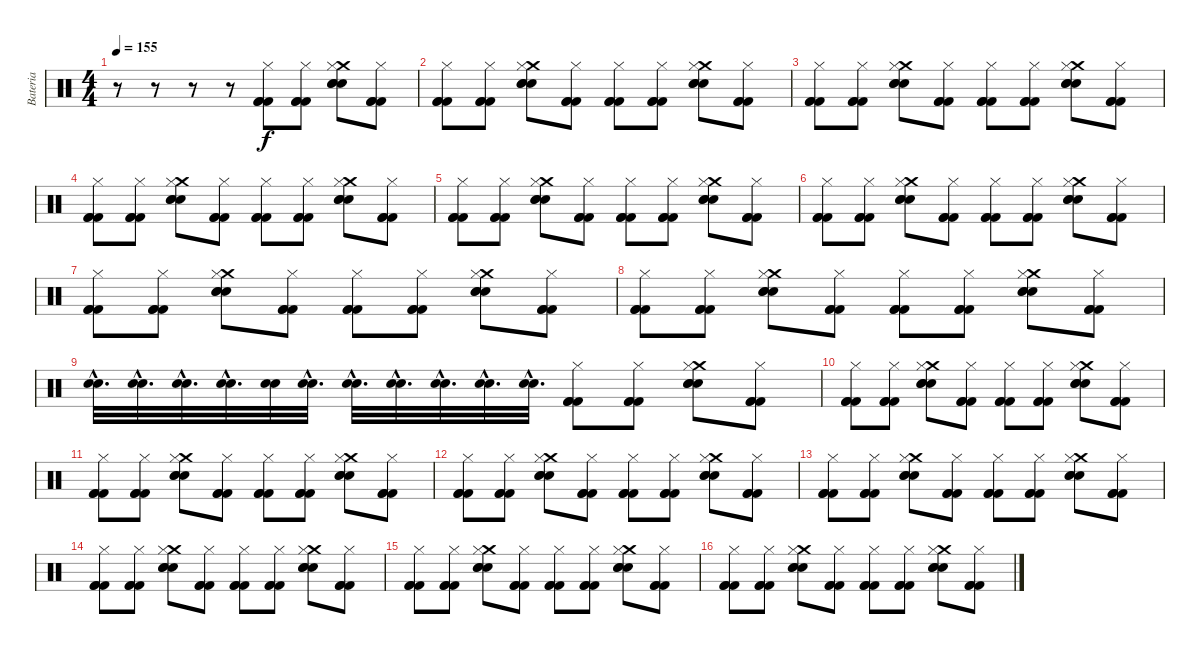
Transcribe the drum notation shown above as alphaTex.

\track ("Bateria" "Bateria") {instrument percussion}
\staff {score}
\articulation defaults
\ts (4 4)
\tempo 155
\clef neutral
\ks c
r.8{dy f} r.8 r.8 r.8 ("Kick (hit) 2" "Kick (hit) 2" "Kick (hit) 2" "Hi-Hat (closed)").8 ("Kick (hit) 2" "Kick (hit) 2" "Kick (hit) 2" "Hi-Hat (closed)").8 ("Snare (hit) 2" "Snare (hit) 2" "Snare (hit) 2" "Crash medium (hit)" "Hi-Hat (closed)").8 ("Kick (hit) 2" "Kick (hit) 2" "Kick (hit) 2" "Hi-Hat (closed)").8 |
("Kick (hit) 2" "Kick (hit) 2" "Kick (hit) 2" "Hi-Hat (closed)").8 ("Kick (hit) 2" "Kick (hit) 2" "Kick (hit) 2" "Hi-Hat (closed)").8 ("Snare (hit) 2" "Snare (hit) 2" "Snare (hit) 2" "Crash medium (hit)" "Hi-Hat (closed)").8 ("Kick (hit) 2" "Kick (hit) 2" "Kick (hit) 2" "Hi-Hat (closed)").8 ("Kick (hit) 2" "Kick (hit) 2" "Kick (hit) 2" "Hi-Hat (closed)").8 ("Kick (hit) 2" "Kick (hit) 2" "Kick (hit) 2" "Hi-Hat (closed)").8 ("Snare (hit) 2" "Snare (hit) 2" "Snare (hit) 2" "Crash medium (hit)" "Hi-Hat (closed)").8 ("Kick (hit) 2" "Kick (hit) 2" "Kick (hit) 2" "Hi-Hat (closed)").8 |
("Kick (hit) 2" "Kick (hit) 2" "Kick (hit) 2" "Hi-Hat (closed)").8 ("Kick (hit) 2" "Kick (hit) 2" "Kick (hit) 2" "Hi-Hat (closed)").8 ("Snare (hit) 2" "Snare (hit) 2" "Snare (hit) 2" "Crash medium (hit)" "Hi-Hat (closed)").8 ("Kick (hit) 2" "Kick (hit) 2" "Kick (hit) 2" "Hi-Hat (closed)").8 ("Kick (hit) 2" "Kick (hit) 2" "Kick (hit) 2" "Hi-Hat (closed)").8 ("Kick (hit) 2" "Kick (hit) 2" "Kick (hit) 2" "Hi-Hat (closed)").8 ("Snare (hit) 2" "Snare (hit) 2" "Snare (hit) 2" "Crash medium (hit)" "Hi-Hat (closed)").8 ("Kick (hit) 2" "Kick (hit) 2" "Kick (hit) 2" "Hi-Hat (closed)").8 |
("Kick (hit) 2" "Kick (hit) 2" "Kick (hit) 2" "Hi-Hat (closed)").8 ("Kick (hit) 2" "Kick (hit) 2" "Kick (hit) 2" "Hi-Hat (closed)").8 ("Snare (hit) 2" "Snare (hit) 2" "Snare (hit) 2" "Crash medium (hit)" "Hi-Hat (closed)").8 ("Kick (hit) 2" "Kick (hit) 2" "Kick (hit) 2" "Hi-Hat (closed)").8 ("Kick (hit) 2" "Kick (hit) 2" "Kick (hit) 2" "Hi-Hat (closed)").8 ("Kick (hit) 2" "Kick (hit) 2" "Kick (hit) 2" "Hi-Hat (closed)").8 ("Snare (hit) 2" "Snare (hit) 2" "Snare (hit) 2" "Crash medium (hit)" "Hi-Hat (closed)").8 ("Kick (hit) 2" "Kick (hit) 2" "Kick (hit) 2" "Hi-Hat (closed)").8 |
("Kick (hit) 2" "Kick (hit) 2" "Kick (hit) 2" "Hi-Hat (closed)").8 ("Kick (hit) 2" "Kick (hit) 2" "Kick (hit) 2" "Hi-Hat (closed)").8 ("Snare (hit) 2" "Snare (hit) 2" "Snare (hit) 2" "Crash medium (hit)" "Hi-Hat (closed)").8 ("Kick (hit) 2" "Kick (hit) 2" "Kick (hit) 2" "Hi-Hat (closed)").8 ("Kick (hit) 2" "Kick (hit) 2" "Kick (hit) 2" "Hi-Hat (closed)").8 ("Kick (hit) 2" "Kick (hit) 2" "Kick (hit) 2" "Hi-Hat (closed)").8 ("Snare (hit) 2" "Snare (hit) 2" "Snare (hit) 2" "Crash medium (hit)" "Hi-Hat (closed)").8 ("Kick (hit) 2" "Kick (hit) 2" "Kick (hit) 2" "Hi-Hat (closed)").8 |
("Kick (hit) 2" "Kick (hit) 2" "Kick (hit) 2" "Hi-Hat (closed)").8 ("Kick (hit) 2" "Kick (hit) 2" "Kick (hit) 2" "Hi-Hat (closed)").8 ("Snare (hit) 2" "Snare (hit) 2" "Snare (hit) 2" "Crash medium (hit)" "Hi-Hat (closed)").8 ("Kick (hit) 2" "Kick (hit) 2" "Kick (hit) 2" "Hi-Hat (closed)").8 ("Kick (hit) 2" "Kick (hit) 2" "Kick (hit) 2" "Hi-Hat (closed)").8 ("Kick (hit) 2" "Kick (hit) 2" "Kick (hit) 2" "Hi-Hat (closed)").8 ("Snare (hit) 2" "Snare (hit) 2" "Snare (hit) 2" "Crash medium (hit)" "Hi-Hat (closed)").8 ("Kick (hit) 2" "Kick (hit) 2" "Kick (hit) 2" "Hi-Hat (closed)").8 |
("Kick (hit) 2" "Kick (hit) 2" "Kick (hit) 2" "Hi-Hat (closed)").8 ("Kick (hit) 2" "Kick (hit) 2" "Kick (hit) 2" "Hi-Hat (closed)").8 ("Snare (hit) 2" "Snare (hit) 2" "Snare (hit) 2" "Crash medium (hit)" "Hi-Hat (closed)").8 ("Kick (hit) 2" "Kick (hit) 2" "Kick (hit) 2" "Hi-Hat (closed)").8 ("Kick (hit) 2" "Kick (hit) 2" "Kick (hit) 2" "Hi-Hat (closed)").8 ("Kick (hit) 2" "Kick (hit) 2" "Kick (hit) 2" "Hi-Hat (closed)").8 ("Snare (hit) 2" "Snare (hit) 2" "Snare (hit) 2" "Crash medium (hit)" "Hi-Hat (closed)").8 ("Kick (hit) 2" "Kick (hit) 2" "Kick (hit) 2" "Hi-Hat (closed)").8 |
("Kick (hit) 2" "Kick (hit) 2" "Kick (hit) 2" "Hi-Hat (closed)").8 ("Kick (hit) 2" "Kick (hit) 2" "Kick (hit) 2" "Hi-Hat (closed)").8 ("Snare (hit) 2" "Snare (hit) 2" "Snare (hit) 2" "Crash medium (hit)" "Hi-Hat (closed)").8 ("Kick (hit) 2" "Kick (hit) 2" "Kick (hit) 2" "Hi-Hat (closed)").8 ("Kick (hit) 2" "Kick (hit) 2" "Kick (hit) 2" "Hi-Hat (closed)").8 ("Kick (hit) 2" "Kick (hit) 2" "Kick (hit) 2" "Hi-Hat (closed)").8 ("Snare (hit) 2" "Snare (hit) 2" "Snare (hit) 2" "Crash medium (hit)" "Hi-Hat (closed)").8 ("Kick (hit) 2" "Kick (hit) 2" "Kick (hit) 2" "Hi-Hat (closed)").8 |
("Snare (hit) 2"{hac} "Snare (hit) 2"{hac}).32{d} ("Snare (hit) 2"{hac} "Snare (hit) 2"{hac}).32{d} ("Snare (hit) 2"{hac} "Snare (hit) 2"{hac}).32{d} ("Snare (hit) 2"{hac} "Snare (hit) 2"{hac}).32{d} ("Snare (hit) 2" "Snare (hit) 2").32 ("Snare (hit) 2"{hac} "Snare (hit) 2"{hac}).32{d} ("Snare (hit) 2"{hac} "Snare (hit) 2"{hac}).32{d} ("Snare (hit) 2"{hac} "Snare (hit) 2"{hac}).32{d} ("Snare (hit) 2"{hac} "Snare (hit) 2"{hac}).32{d} ("Snare (hit) 2"{hac} "Snare (hit) 2"{hac}).32{d} ("Snare (hit) 2"{hac} "Snare (hit) 2"{hac}).32{d} ("Kick (hit) 2" "Kick (hit) 2" "Kick (hit) 2" "Hi-Hat (closed)").8 ("Kick (hit) 2" "Kick (hit) 2" "Kick (hit) 2" "Hi-Hat (closed)").8 ("Snare (hit) 2" "Snare (hit) 2" "Snare (hit) 2" "Crash medium (hit)" "Hi-Hat (closed)").8 ("Kick (hit) 2" "Kick (hit) 2" "Kick (hit) 2" "Hi-Hat (closed)").8 |
("Kick (hit) 2" "Kick (hit) 2" "Kick (hit) 2" "Hi-Hat (closed)").8 ("Kick (hit) 2" "Kick (hit) 2" "Kick (hit) 2" "Hi-Hat (closed)").8 ("Snare (hit) 2" "Snare (hit) 2" "Snare (hit) 2" "Crash medium (hit)" "Hi-Hat (closed)").8 ("Kick (hit) 2" "Kick (hit) 2" "Kick (hit) 2" "Hi-Hat (closed)").8 ("Kick (hit) 2" "Kick (hit) 2" "Kick (hit) 2" "Hi-Hat (closed)").8 ("Kick (hit) 2" "Kick (hit) 2" "Kick (hit) 2" "Hi-Hat (closed)").8 ("Snare (hit) 2" "Snare (hit) 2" "Snare (hit) 2" "Crash medium (hit)" "Hi-Hat (closed)").8 ("Kick (hit) 2" "Kick (hit) 2" "Kick (hit) 2" "Hi-Hat (closed)").8 |
("Kick (hit) 2" "Kick (hit) 2" "Kick (hit) 2" "Hi-Hat (closed)").8 ("Kick (hit) 2" "Kick (hit) 2" "Kick (hit) 2" "Hi-Hat (closed)").8 ("Snare (hit) 2" "Snare (hit) 2" "Snare (hit) 2" "Crash medium (hit)" "Hi-Hat (closed)").8 ("Kick (hit) 2" "Kick (hit) 2" "Kick (hit) 2" "Hi-Hat (closed)").8 ("Kick (hit) 2" "Kick (hit) 2" "Kick (hit) 2" "Hi-Hat (closed)").8 ("Kick (hit) 2" "Kick (hit) 2" "Kick (hit) 2" "Hi-Hat (closed)").8 ("Snare (hit) 2" "Snare (hit) 2" "Snare (hit) 2" "Crash medium (hit)" "Hi-Hat (closed)").8 ("Kick (hit) 2" "Kick (hit) 2" "Kick (hit) 2" "Hi-Hat (closed)").8 |
("Kick (hit) 2" "Kick (hit) 2" "Kick (hit) 2" "Hi-Hat (closed)").8 ("Kick (hit) 2" "Kick (hit) 2" "Kick (hit) 2" "Hi-Hat (closed)").8 ("Snare (hit) 2" "Snare (hit) 2" "Snare (hit) 2" "Crash medium (hit)" "Hi-Hat (closed)").8 ("Kick (hit) 2" "Kick (hit) 2" "Kick (hit) 2" "Hi-Hat (closed)").8 ("Kick (hit) 2" "Kick (hit) 2" "Kick (hit) 2" "Hi-Hat (closed)").8 ("Kick (hit) 2" "Kick (hit) 2" "Kick (hit) 2" "Hi-Hat (closed)").8 ("Snare (hit) 2" "Snare (hit) 2" "Snare (hit) 2" "Crash medium (hit)" "Hi-Hat (closed)").8 ("Kick (hit) 2" "Kick (hit) 2" "Kick (hit) 2" "Hi-Hat (closed)").8 |
("Kick (hit) 2" "Kick (hit) 2" "Kick (hit) 2" "Hi-Hat (closed)").8 ("Kick (hit) 2" "Kick (hit) 2" "Kick (hit) 2" "Hi-Hat (closed)").8 ("Snare (hit) 2" "Snare (hit) 2" "Snare (hit) 2" "Crash medium (hit)" "Hi-Hat (closed)").8 ("Kick (hit) 2" "Kick (hit) 2" "Kick (hit) 2" "Hi-Hat (closed)").8 ("Kick (hit) 2" "Kick (hit) 2" "Kick (hit) 2" "Hi-Hat (closed)").8 ("Kick (hit) 2" "Kick (hit) 2" "Kick (hit) 2" "Hi-Hat (closed)").8 ("Snare (hit) 2" "Snare (hit) 2" "Snare (hit) 2" "Crash medium (hit)" "Hi-Hat (closed)").8 ("Kick (hit) 2" "Kick (hit) 2" "Kick (hit) 2" "Hi-Hat (closed)").8 |
("Kick (hit) 2" "Kick (hit) 2" "Kick (hit) 2" "Hi-Hat (closed)").8 ("Kick (hit) 2" "Kick (hit) 2" "Kick (hit) 2" "Hi-Hat (closed)").8 ("Snare (hit) 2" "Snare (hit) 2" "Snare (hit) 2" "Crash medium (hit)" "Hi-Hat (closed)").8 ("Kick (hit) 2" "Kick (hit) 2" "Kick (hit) 2" "Hi-Hat (closed)").8 ("Kick (hit) 2" "Kick (hit) 2" "Kick (hit) 2" "Hi-Hat (closed)").8 ("Kick (hit) 2" "Kick (hit) 2" "Kick (hit) 2" "Hi-Hat (closed)").8 ("Snare (hit) 2" "Snare (hit) 2" "Snare (hit) 2" "Crash medium (hit)" "Hi-Hat (closed)").8 ("Kick (hit) 2" "Kick (hit) 2" "Kick (hit) 2" "Hi-Hat (closed)").8 |
("Kick (hit) 2" "Kick (hit) 2" "Kick (hit) 2" "Hi-Hat (closed)").8 ("Kick (hit) 2" "Kick (hit) 2" "Kick (hit) 2" "Hi-Hat (closed)").8 ("Snare (hit) 2" "Snare (hit) 2" "Snare (hit) 2" "Crash medium (hit)" "Hi-Hat (closed)").8 ("Kick (hit) 2" "Kick (hit) 2" "Kick (hit) 2" "Hi-Hat (closed)").8 ("Kick (hit) 2" "Kick (hit) 2" "Kick (hit) 2" "Hi-Hat (closed)").8 ("Kick (hit) 2" "Kick (hit) 2" "Kick (hit) 2" "Hi-Hat (closed)").8 ("Snare (hit) 2" "Snare (hit) 2" "Snare (hit) 2" "Crash medium (hit)" "Hi-Hat (closed)").8 ("Kick (hit) 2" "Kick (hit) 2" "Kick (hit) 2" "Hi-Hat (closed)").8 |
("Kick (hit) 2" "Kick (hit) 2" "Kick (hit) 2" "Hi-Hat (closed)").8 ("Kick (hit) 2" "Kick (hit) 2" "Kick (hit) 2" "Hi-Hat (closed)").8 ("Snare (hit) 2" "Snare (hit) 2" "Snare (hit) 2" "Crash medium (hit)" "Hi-Hat (closed)").8 ("Kick (hit) 2" "Kick (hit) 2" "Kick (hit) 2" "Hi-Hat (closed)").8 ("Kick (hit) 2" "Kick (hit) 2" "Kick (hit) 2" "Hi-Hat (closed)").8 ("Kick (hit) 2" "Kick (hit) 2" "Kick (hit) 2" "Hi-Hat (closed)").8 ("Snare (hit) 2" "Snare (hit) 2" "Snare (hit) 2" "Crash medium (hit)" "Hi-Hat (closed)").8 ("Kick (hit) 2" "Kick (hit) 2" "Kick (hit) 2" "Hi-Hat (closed)").8
